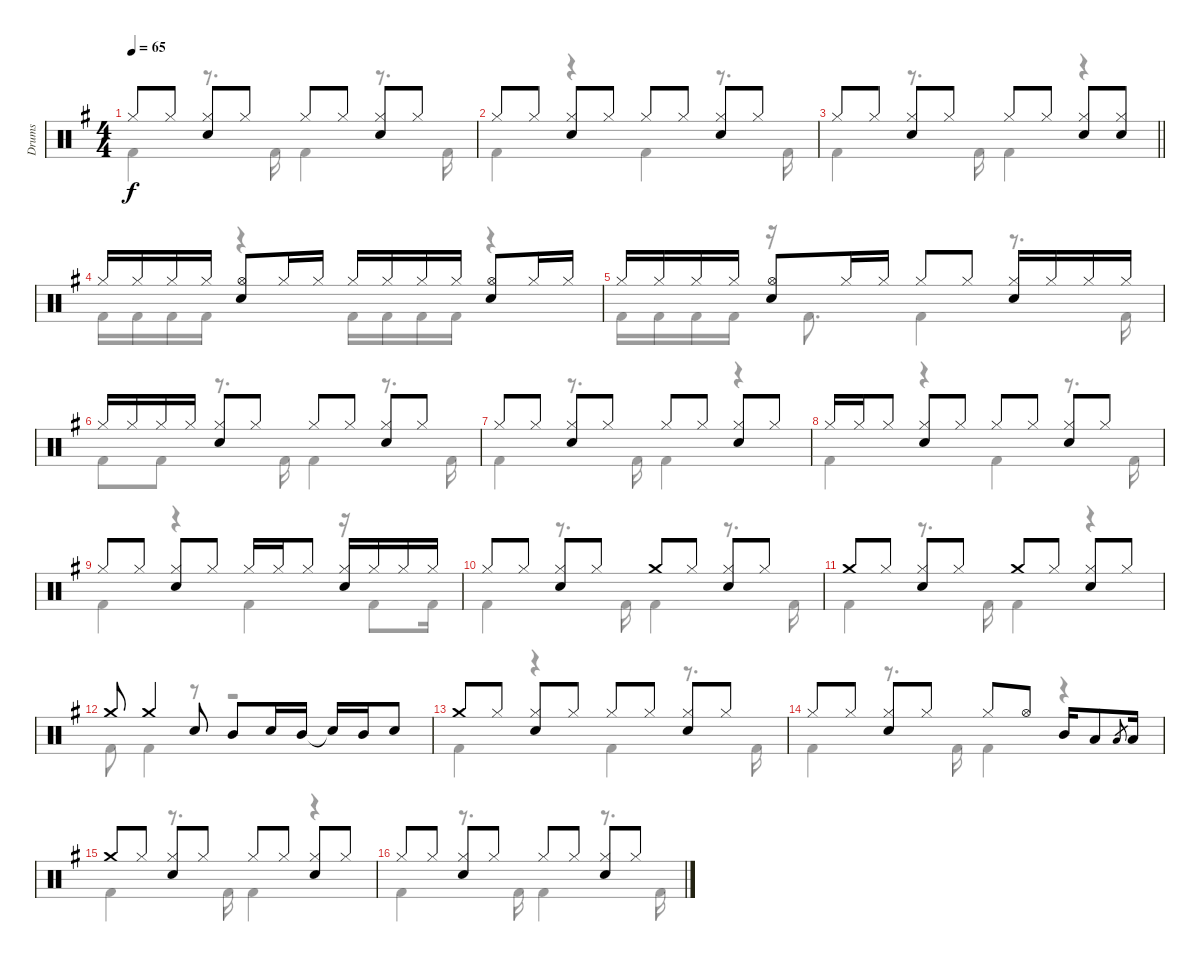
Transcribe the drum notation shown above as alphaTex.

\track ("Drums" "Drums") {instrument percussion}
\staff {score}
\articulation defaults
\voice
\ts (4 4)
\tempo 65
\clef neutral
\ks g "Hi-Hat (closed)".8{dy f} "Hi-Hat (closed)".8
("Hi-Hat (closed)" "Snare (hit) 2").8 "Hi-Hat (closed)".8 "Hi-Hat (closed)".8 "Hi-Hat (closed)".8 ("Hi-Hat (closed)" "Snare (hit) 2").8 "Hi-Hat (closed)".8 |
"Hi-Hat (closed)".8 "Hi-Hat (closed)".8 ("Hi-Hat (closed)" "Snare (hit) 2").8 "Hi-Hat (closed)".8 "Hi-Hat (closed)".8 "Hi-Hat (closed)".8 ("Hi-Hat (closed)" "Snare (hit) 2").8 "Hi-Hat (closed)".8 |
\barLineRight lightlight "Hi-Hat (closed)".8 "Hi-Hat (closed)".8
("Hi-Hat (closed)" "Snare (hit) 2").8 "Hi-Hat (closed)".8 "Hi-Hat (closed)".8 "Hi-Hat (closed)".8 ("Hi-Hat (closed)" "Snare (hit) 2").8 ("Hi-Hat (closed)" "Snare (hit) 2").8 |
"Hi-Hat (closed)".16 "Hi-Hat (closed)".16 "Hi-Hat (closed)".16 "Hi-Hat (closed)".16 ("Hi-Hat (open)" "Snare (hit) 2").8 "Hi-Hat (closed)".16 "Hi-Hat (closed)".16 "Hi-Hat (closed)".16 "Hi-Hat (closed)".16 "Hi-Hat (closed)".16 "Hi-Hat (closed)".16 ("Hi-Hat (open)" "Snare (hit) 2").8 "Hi-Hat (closed)".16 "Hi-Hat (closed)".16 |
"Hi-Hat (closed)".16 "Hi-Hat (closed)".16 "Hi-Hat (closed)".16 "Hi-Hat (closed)".16 ("Hi-Hat (open)" "Snare (hit) 2").8 "Hi-Hat (closed)".16 "Hi-Hat (closed)".16 "Hi-Hat (closed)".8 "Hi-Hat (closed)".8 ("Hi-Hat (closed)" "Snare (hit) 2").16 "Hi-Hat (closed)".16 "Hi-Hat (closed)".16 "Hi-Hat (closed)".16 |
"Hi-Hat (closed)".16 "Hi-Hat (closed)".16 "Hi-Hat (closed)".16 "Hi-Hat (closed)".16 ("Hi-Hat (closed)" "Snare (hit) 2").8 "Hi-Hat (closed)".8 "Hi-Hat (closed)".8 "Hi-Hat (closed)".8 ("Hi-Hat (closed)" "Snare (hit) 2").8 "Hi-Hat (closed)".8 |
"Hi-Hat (closed)".8 "Hi-Hat (closed)".8 ("Hi-Hat (closed)" "Snare (hit) 2").8 "Hi-Hat (closed)".8 "Hi-Hat (closed)".8 "Hi-Hat (closed)".8 ("Hi-Hat (closed)" "Snare (hit) 2").8 "Hi-Hat (closed)".8 |
"Hi-Hat (closed)".16 "Hi-Hat (closed)".16 "Hi-Hat (closed)".8 ("Hi-Hat (closed)" "Snare (hit) 2").8 "Hi-Hat (closed)".8 "Hi-Hat (closed)".8 "Hi-Hat (closed)".8 ("Hi-Hat (closed)" "Snare (hit) 2").8 "Hi-Hat (closed)".8 |
"Hi-Hat (closed)".8 "Hi-Hat (closed)".8 ("Hi-Hat (closed)" "Snare (hit) 2").8 "Hi-Hat (closed)".8 "Hi-Hat (closed)".16 "Hi-Hat (closed)".16 "Hi-Hat (closed)".8 ("Hi-Hat (closed)" "Snare (hit) 2").16 "Hi-Hat (closed)".16 "Hi-Hat (closed)".16 "Hi-Hat (closed)".16 |
"Hi-Hat (closed)".8 "Hi-Hat (closed)".8 ("Hi-Hat (closed)" "Snare (hit) 2").8 "Hi-Hat (closed)".8 "Crash medium (hit)".8 "Hi-Hat (closed)".8 ("Hi-Hat (closed)" "Snare (hit) 2").8 "Hi-Hat (closed)".8 |
"Crash medium (hit)".8 "Hi-Hat (closed)".8 ("Hi-Hat (closed)" "Snare (hit) 2").8 "Hi-Hat (closed)".8 "Crash medium (hit)".8 "Hi-Hat (closed)".8 ("Hi-Hat (closed)" "Snare (hit) 2").8 "Hi-Hat (closed)".8 |
"Crash medium (hit)".8 "Crash medium (hit)".4 "Snare (hit) 2".8 "Mid Tom (hit)".8 "Snare (hit) 2".16 "Mid Tom (hit)".16 "Snare (hit)"{t}.16 "Mid Tom (hit)".16 "Snare (hit) 2".8 |
"Crash medium (hit)".8 "Hi-Hat (closed)".8 ("Hi-Hat (closed)" "Snare (hit) 2").8 "Hi-Hat (closed)".8 "Hi-Hat (closed)".8 "Hi-Hat (closed)".8 ("Hi-Hat (closed)" "Snare (hit) 2").8 "Hi-Hat (closed)".8 |
"Hi-Hat (closed)".8 "Hi-Hat (closed)".8 ("Hi-Hat (closed)" "Snare (hit) 2").8 "Hi-Hat (closed)".8 "Hi-Hat (closed)".8 "Hi-Hat (open)".8 "Mid Tom (hit)".16 "Low Tom (hit)".8 "Low Tom (hit)".8{gr} "Low Tom (hit)".16 |
"Crash medium (hit)".8 "Hi-Hat (closed)".8 ("Hi-Hat (closed)" "Snare (hit) 2").8 "Hi-Hat (closed)".8 "Hi-Hat (closed)".8 "Hi-Hat (closed)".8 ("Hi-Hat (closed)" "Snare (hit) 2").8 "Hi-Hat (closed)".8 |
"Hi-Hat (closed)".8 "Hi-Hat (closed)".8 ("Hi-Hat (closed)" "Snare (hit) 2").8 "Hi-Hat (closed)".8 "Hi-Hat (closed)".8 "Hi-Hat (closed)".8 ("Hi-Hat (closed)" "Snare (hit) 2").8 "Hi-Hat (closed)".8
\voice
\clef neutral
\ottava regular
\simile none
\ks g "Kick (hit) 2".4{dy f}
r.8{d} "Kick (hit) 2".16 "Kick (hit) 2".4 r.8{d} "Kick (hit) 2".16 |
"Kick (hit) 2".4 r.4 "Kick (hit) 2".4 r.8{d} "Kick (hit) 2".16 |
\barLineRight lightlight "Kick (hit) 2".4
r.8{d} "Kick (hit) 2".16 "Kick (hit) 2".4 r.4 |
"Kick (hit) 2".16 "Kick (hit) 2".16 "Kick (hit) 2".16 "Kick (hit) 2".16 r.4 "Kick (hit) 2".16 "Kick (hit) 2".16 "Kick (hit) 2".16 "Kick (hit) 2".16 r.4 |
"Kick (hit) 2".16 "Kick (hit) 2".16 "Kick (hit) 2".16 "Kick (hit) 2".16 r.16 "Kick (hit) 2".8{d} "Kick (hit) 2".4 r.8{d} "Kick (hit) 2".16 |
"Kick (hit) 2".8 "Kick (hit) 2".8 r.8{d} "Kick (hit) 2".16 "Kick (hit) 2".4 r.8{d} "Kick (hit) 2".16 |
"Kick (hit) 2".4 r.8{d} "Kick (hit) 2".16 "Kick (hit) 2".4 r.4 |
"Kick (hit) 2".4 r.4 "Kick (hit) 2".4 r.8{d} "Kick (hit) 2".16 |
"Kick (hit) 2".4 r.4 "Kick (hit) 2".4 r.16 "Kick (hit) 2".8 "Kick (hit) 2".16 |
"Kick (hit) 2".4 r.8{d} "Kick (hit) 2".16 "Kick (hit) 2".4 r.8{d} "Kick (hit) 2".16 |
"Kick (hit) 2".4 r.8{d} "Kick (hit) 2".16 "Kick (hit) 2".4 r.4 |
"Kick (hit) 2".8 "Kick (hit) 2".4 r.8 r.2 |
"Kick (hit) 2".4 r.4 "Kick (hit) 2".4 r.8{d} "Kick (hit) 2".16 |
"Kick (hit) 2".4 r.8{d} "Kick (hit) 2".16 "Kick (hit) 2".4 r.4 |
"Kick (hit) 2".4 r.8{d} "Kick (hit) 2".16 "Kick (hit) 2".4 r.4 |
"Kick (hit) 2".4 r.8{d} "Kick (hit) 2".16 "Kick (hit) 2".4 r.8{d} "Kick (hit) 2".16
